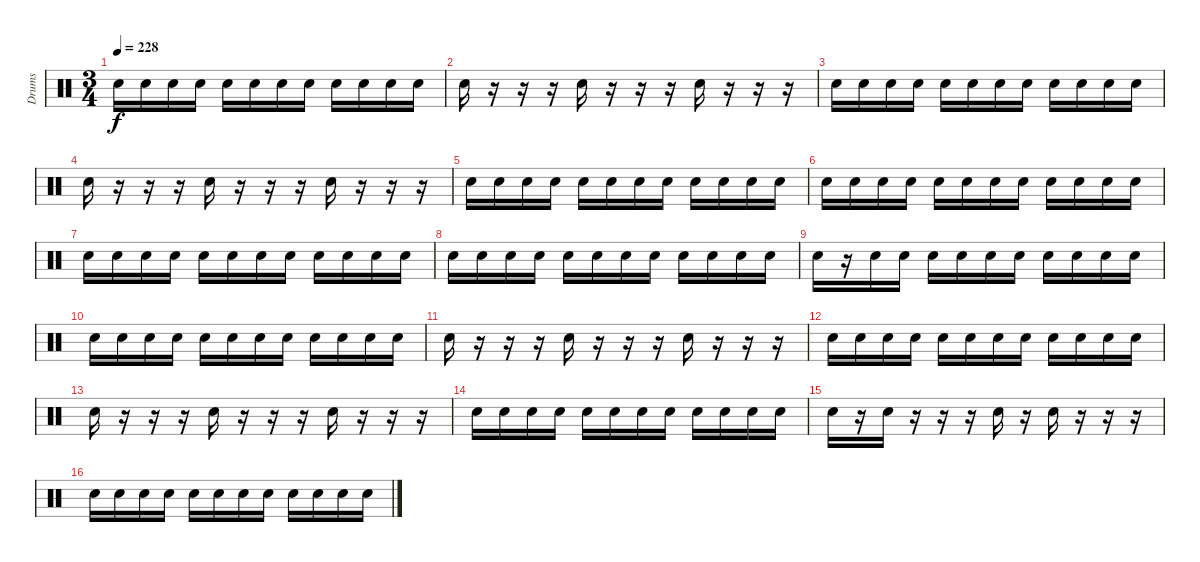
\track ("Drums" "Drums") {instrument percussion}
\staff {score}
\articulation defaults
\ts (3 4)
\tempo 228
\clef neutral
\ks c "Snare (hit) 2".16{dy f} "Snare (hit) 2".16 "Snare (hit) 2".16 "Snare (hit) 2".16 "Snare (hit) 2".16 "Snare (hit) 2".16 "Snare (hit) 2".16 "Snare (hit) 2".16 "Snare (hit) 2".16 "Snare (hit) 2".16 "Snare (hit) 2".16 "Snare (hit) 2".16
|
"Snare (hit) 2".16 r.16 r.16 r.16 "Snare (hit) 2".16 r.16 r.16 r.16 "Snare (hit) 2".16 r.16 r.16 r.16 |
"Snare (hit) 2".16 "Snare (hit) 2".16 "Snare (hit) 2".16 "Snare (hit) 2".16 "Snare (hit) 2".16 "Snare (hit) 2".16 "Snare (hit) 2".16 "Snare (hit) 2".16 "Snare (hit) 2".16 "Snare (hit) 2".16 "Snare (hit) 2".16 "Snare (hit) 2".16 |
"Snare (hit) 2".16 r.16 r.16 r.16 "Snare (hit) 2".16 r.16 r.16 r.16 "Snare (hit) 2".16 r.16 r.16 r.16 |
"Snare (hit) 2".16 "Snare (hit) 2".16 "Snare (hit) 2".16 "Snare (hit) 2".16 "Snare (hit) 2".16 "Snare (hit) 2".16 "Snare (hit) 2".16 "Snare (hit) 2".16 "Snare (hit) 2".16 "Snare (hit) 2".16 "Snare (hit) 2".16 "Snare (hit) 2".16 |
"Snare (hit) 2".16 "Snare (hit) 2".16 "Snare (hit) 2".16 "Snare (hit) 2".16 "Snare (hit) 2".16 "Snare (hit) 2".16 "Snare (hit) 2".16 "Snare (hit) 2".16 "Snare (hit) 2".16 "Snare (hit) 2".16 "Snare (hit) 2".16 "Snare (hit) 2".16 |
"Snare (hit) 2".16 "Snare (hit) 2".16 "Snare (hit) 2".16 "Snare (hit) 2".16 "Snare (hit) 2".16 "Snare (hit) 2".16 "Snare (hit) 2".16 "Snare (hit) 2".16 "Snare (hit) 2".16 "Snare (hit) 2".16 "Snare (hit) 2".16 "Snare (hit) 2".16 |
"Snare (hit) 2".16 "Snare (hit) 2".16 "Snare (hit) 2".16 "Snare (hit) 2".16 "Snare (hit) 2".16 "Snare (hit) 2".16 "Snare (hit) 2".16 "Snare (hit) 2".16 "Snare (hit) 2".16 "Snare (hit) 2".16 "Snare (hit) 2".16 "Snare (hit) 2".16 |
"Snare (hit) 2".16 r.16 "Snare (hit) 2".16 "Snare (hit) 2".16 "Snare (hit) 2".16 "Snare (hit) 2".16 "Snare (hit) 2".16 "Snare (hit) 2".16 "Snare (hit) 2".16 "Snare (hit) 2".16 "Snare (hit) 2".16 "Snare (hit) 2".16 |
"Snare (hit) 2".16 "Snare (hit) 2".16 "Snare (hit) 2".16 "Snare (hit) 2".16 "Snare (hit) 2".16 "Snare (hit) 2".16 "Snare (hit) 2".16 "Snare (hit) 2".16 "Snare (hit) 2".16 "Snare (hit) 2".16 "Snare (hit) 2".16 "Snare (hit) 2".16 |
"Snare (hit) 2".16 r.16 r.16 r.16 "Snare (hit) 2".16 r.16 r.16 r.16 "Snare (hit) 2".16 r.16 r.16 r.16 |
"Snare (hit) 2".16 "Snare (hit) 2".16 "Snare (hit) 2".16 "Snare (hit) 2".16 "Snare (hit) 2".16 "Snare (hit) 2".16 "Snare (hit) 2".16 "Snare (hit) 2".16 "Snare (hit) 2".16 "Snare (hit) 2".16 "Snare (hit) 2".16 "Snare (hit) 2".16 |
"Snare (hit) 2".16 r.16 r.16 r.16 "Snare (hit) 2".16 r.16 r.16 r.16 "Snare (hit) 2".16 r.16 r.16 r.16 |
"Snare (hit) 2".16 "Snare (hit) 2".16 "Snare (hit) 2".16 "Snare (hit) 2".16 "Snare (hit) 2".16 "Snare (hit) 2".16 "Snare (hit) 2".16 "Snare (hit) 2".16 "Snare (hit) 2".16 "Snare (hit) 2".16 "Snare (hit) 2".16 "Snare (hit) 2".16 |
"Snare (hit) 2".16 r.16 "Snare (hit) 2".16 r.16 r.16 r.16 "Snare (hit) 2".16 r.16 "Snare (hit) 2".16 r.16 r.16 r.16 |
"Snare (hit) 2".16 "Snare (hit) 2".16 "Snare (hit) 2".16 "Snare (hit) 2".16 "Snare (hit) 2".16 "Snare (hit) 2".16 "Snare (hit) 2".16 "Snare (hit) 2".16 "Snare (hit) 2".16 "Snare (hit) 2".16 "Snare (hit) 2".16 "Snare (hit) 2".16
